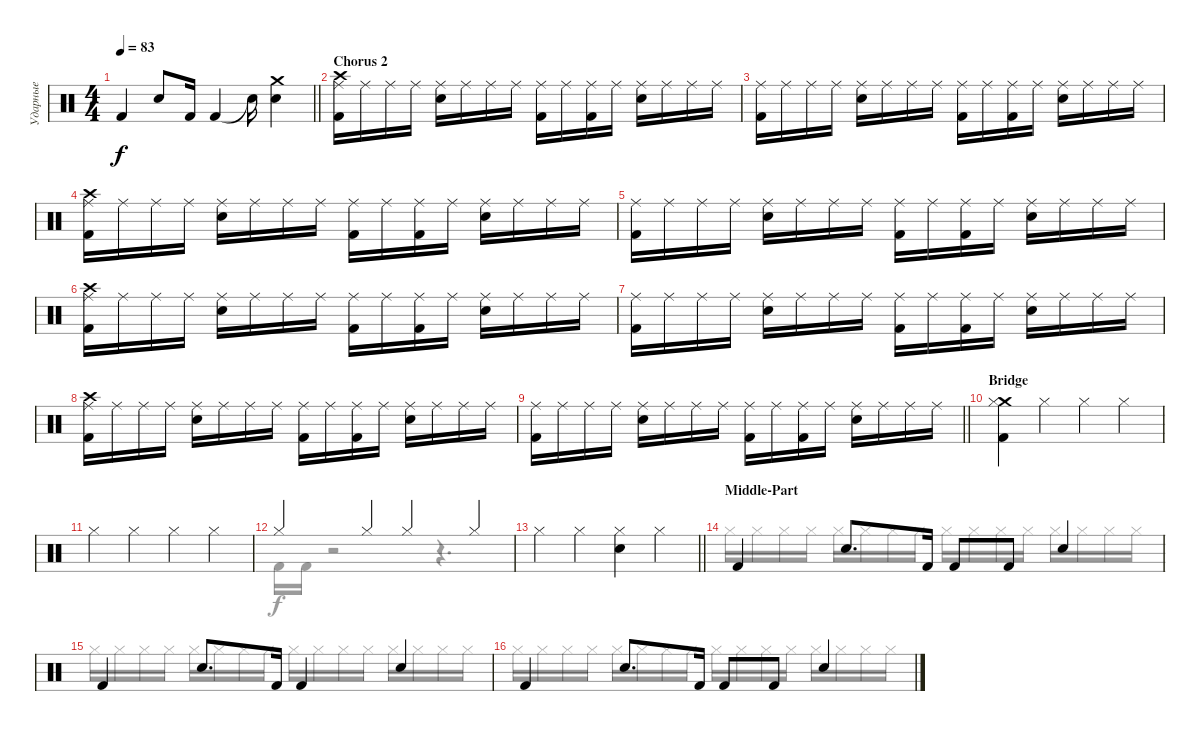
\track ("Ударные" "Ударные") {instrument percussion}
\staff {score}
\articulation defaults
\voice
\ts (4 4)
\tempo 83
\clef neutral
\barLineRight lightlight
\ks c "Kick (hit) 2".4{dy f} "Snare (hit) 2".8 "Kick (hit) 2".16 "Kick (hit) 2".4 "Snare (hit)"{t}.16
("Crash medium (hit)" "Snare (hit) 2").4 |
\section ("" "Chorus 2")
("Ride (middle)" "Crash high (hit)" "Kick (hit) 2").16 "Ride (middle)".16 "Ride (middle)".16 "Ride (middle)".16 ("Ride (middle)" "Snare (hit) 2").16 "Ride (middle)".16 "Ride (middle)".16 "Ride (middle)".16 ("Ride (middle)" "Kick (hit) 2").16 "Ride (middle)".16 ("Ride (middle)" "Kick (hit) 2").16 "Ride (middle)".16 ("Ride (middle)" "Snare (hit) 2").16 "Ride (middle)".16 "Ride (middle)".16 "Ride (middle)".16 |
("Ride (middle)" "Kick (hit) 2").16 "Ride (middle)".16 "Ride (middle)".16 "Ride (middle)".16 ("Ride (middle)" "Snare (hit) 2").16 "Ride (middle)".16 "Ride (middle)".16 "Ride (middle)".16 ("Ride (middle)" "Kick (hit) 2").16 "Ride (middle)".16 ("Ride (middle)" "Kick (hit) 2").16 "Ride (middle)".16 ("Ride (middle)" "Snare (hit) 2").16 "Ride (middle)".16 "Ride (middle)".16 "Ride (middle)".16 |
("Ride (middle)" "Crash high (hit)" "Kick (hit) 2").16 "Ride (middle)".16 "Ride (middle)".16 "Ride (middle)".16 ("Ride (middle)" "Snare (hit) 2").16 "Ride (middle)".16 "Ride (middle)".16 "Ride (middle)".16 ("Ride (middle)" "Kick (hit) 2").16 "Ride (middle)".16 ("Ride (middle)" "Kick (hit) 2").16 "Ride (middle)".16 ("Ride (middle)" "Snare (hit) 2").16 "Ride (middle)".16 "Ride (middle)".16 "Ride (middle)".16 |
("Ride (middle)" "Kick (hit) 2").16 "Ride (middle)".16 "Ride (middle)".16 "Ride (middle)".16 ("Ride (middle)" "Snare (hit) 2").16 "Ride (middle)".16 "Ride (middle)".16 "Ride (middle)".16 ("Ride (middle)" "Kick (hit) 2").16 "Ride (middle)".16 ("Ride (middle)" "Kick (hit) 2").16 "Ride (middle)".16 ("Ride (middle)" "Snare (hit) 2").16 "Ride (middle)".16 "Ride (middle)".16 "Ride (middle)".16 |
("Ride (middle)" "Crash high (hit)" "Kick (hit) 2").16 "Ride (middle)".16 "Ride (middle)".16 "Ride (middle)".16 ("Ride (middle)" "Snare (hit) 2").16 "Ride (middle)".16 "Ride (middle)".16 "Ride (middle)".16 ("Ride (middle)" "Kick (hit) 2").16 "Ride (middle)".16 ("Ride (middle)" "Kick (hit) 2").16 "Ride (middle)".16 ("Ride (middle)" "Snare (hit) 2").16 "Ride (middle)".16 "Ride (middle)".16 "Ride (middle)".16 |
("Ride (middle)" "Kick (hit) 2").16 "Ride (middle)".16 "Ride (middle)".16 "Ride (middle)".16 ("Ride (middle)" "Snare (hit) 2").16 "Ride (middle)".16 "Ride (middle)".16 "Ride (middle)".16 ("Ride (middle)" "Kick (hit) 2").16 "Ride (middle)".16 ("Ride (middle)" "Kick (hit) 2").16 "Ride (middle)".16 ("Ride (middle)" "Snare (hit) 2").16 "Ride (middle)".16 "Ride (middle)".16 "Ride (middle)".16 |
("Ride (middle)" "Crash high (hit)" "Kick (hit) 2").16 "Ride (middle)".16 "Ride (middle)".16 "Ride (middle)".16 ("Ride (middle)" "Snare (hit) 2").16 "Ride (middle)".16 "Ride (middle)".16 "Ride (middle)".16 ("Ride (middle)" "Kick (hit) 2").16 "Ride (middle)".16 ("Ride (middle)" "Kick (hit) 2").16 "Ride (middle)".16 ("Ride (middle)" "Snare (hit) 2").16 "Ride (middle)".16 "Ride (middle)".16 "Ride (middle)".16 |
\barLineRight lightlight
("Ride (middle)" "Kick (hit) 2").16 "Ride (middle)".16 "Ride (middle)".16 "Ride (middle)".16 ("Ride (middle)" "Snare (hit) 2").16 "Ride (middle)".16 "Ride (middle)".16 "Ride (middle)".16 ("Ride (middle)" "Kick (hit) 2").16 "Ride (middle)".16 ("Ride (middle)" "Kick (hit) 2").16 "Ride (middle)".16 ("Ride (middle)" "Snare (hit) 2").16 "Ride (middle)".16 "Ride (middle)".16 "Ride (middle)".16 |
\section ("" "Bridge")
("Crash medium (hit)" "Hi-Hat (closed)" "Kick (hit) 2").4 "Hi-Hat (closed)".4 "Hi-Hat (closed)".4 "Hi-Hat (closed)".4 |
"Hi-Hat (closed)".4 "Hi-Hat (closed)".4 "Hi-Hat (closed)".4 "Hi-Hat (closed)".4 |
"Hi-Hat (closed)".4 "Hi-Hat (closed)".4 "Hi-Hat (closed)".4 "Hi-Hat (closed)".4 |
\barLineRight lightlight "Hi-Hat (closed)".4 "Hi-Hat (closed)".4
("Hi-Hat (closed)" "Snare (hit) 2").4 "Hi-Hat (closed)".4 |
\section ("" "Middle-Part")
"Kick (hit) 2".4 "Snare (hit) 2".8{d} "Kick (hit) 2".16 "Kick (hit) 2".8 "Kick (hit) 2".8 "Snare (hit) 2".4 |
"Kick (hit) 2".4 "Snare (hit) 2".8{d} "Kick (hit) 2".16 "Kick (hit) 2".4 "Snare (hit) 2".4 |
"Kick (hit) 2".4 "Snare (hit) 2".8{d} "Kick (hit) 2".16 "Kick (hit) 2".8 "Kick (hit) 2".8 "Snare (hit) 2".4
\voice
\clef neutral
\ottava regular
\simile none
\barLineRight lightlight
\ks c
|
|
|
|
|
|
|
|
\barLineRight lightlight
|
|
|
"Kick (hit) 2".16 "Kick (hit) 2".16 r.2 r.4{d} |
\barLineRight lightlight
|
"Hi-Hat (closed)".16 "Hi-Hat (closed)".16 "Hi-Hat (closed)".16 "Hi-Hat (closed)".16 "Hi-Hat (closed)".16 "Hi-Hat (closed)".16 "Hi-Hat (closed)".16 "Hi-Hat (closed)".16 "Hi-Hat (closed)".16 "Hi-Hat (closed)".16 "Hi-Hat (closed)".16 "Hi-Hat (closed)".16 "Hi-Hat (closed)".16 "Hi-Hat (closed)".16 "Hi-Hat (closed)".16 "Hi-Hat (closed)".16 |
"Hi-Hat (closed)".16 "Hi-Hat (closed)".16 "Hi-Hat (closed)".16 "Hi-Hat (closed)".16 "Hi-Hat (closed)".16 "Hi-Hat (closed)".16 "Hi-Hat (closed)".16 "Hi-Hat (closed)".16 "Hi-Hat (closed)".16 "Hi-Hat (closed)".16 "Hi-Hat (closed)".16 "Hi-Hat (closed)".16 "Hi-Hat (closed)".16 "Hi-Hat (closed)".16 "Hi-Hat (closed)".16 "Hi-Hat (closed)".16 |
"Hi-Hat (closed)".16 "Hi-Hat (closed)".16 "Hi-Hat (closed)".16 "Hi-Hat (closed)".16 "Hi-Hat (closed)".16 "Hi-Hat (closed)".16 "Hi-Hat (closed)".16 "Hi-Hat (closed)".16 "Hi-Hat (closed)".16 "Hi-Hat (closed)".16 "Hi-Hat (closed)".16 "Hi-Hat (closed)".16 "Hi-Hat (closed)".16 "Hi-Hat (closed)".16 "Hi-Hat (closed)".16 "Hi-Hat (closed)".16
